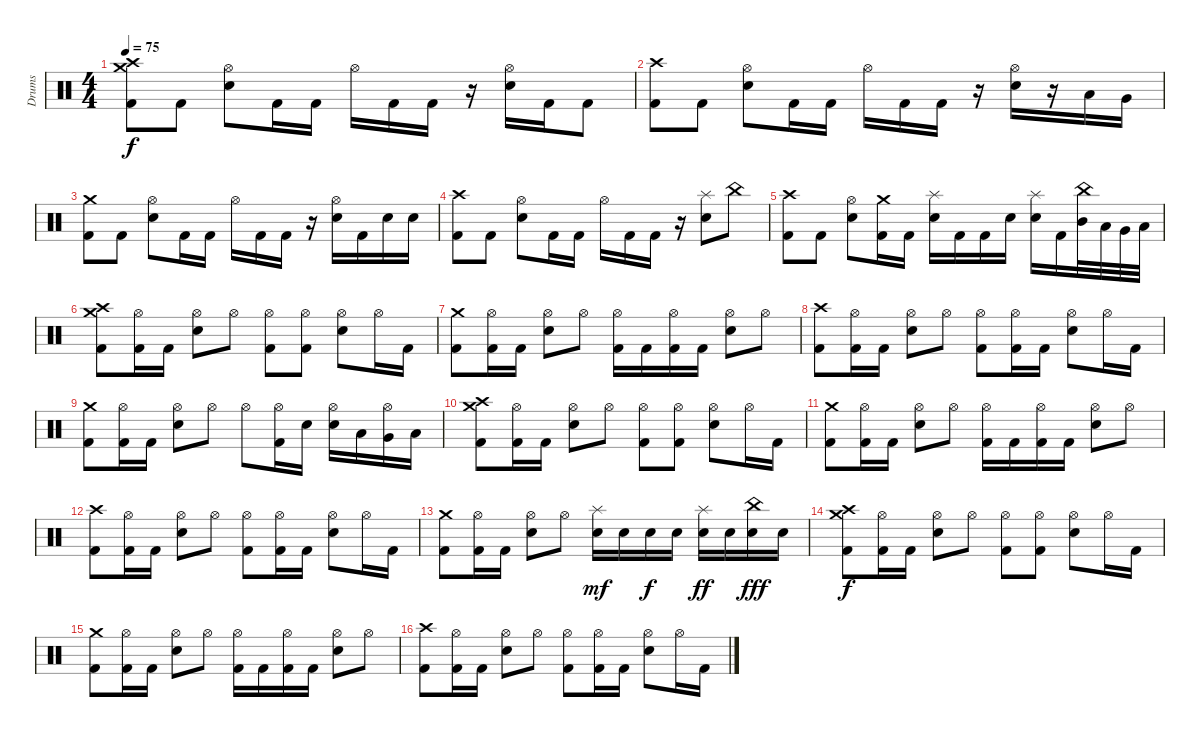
\track ("Drums" "Drums") {instrument percussion}
\staff {score}
\articulation defaults
\ts (4 4)
\tempo 75
\clef neutral
\ks c
("Kick (hit) 2" "Crash high (hit)" "Crash medium (hit)").8{dy f} "Kick (hit) 2".8 ("Electric Snare (hit)" "Hi-Hat (open)").8 "Kick (hit) 2".16 "Kick (hit) 2".16 "Hi-Hat (open)".16 "Kick (hit) 2".16 "Kick (hit) 2".16 r.16 ("Electric Snare (hit)" "Hi-Hat (open)").16 "Kick (hit) 2".16 "Kick (hit) 2".8 |
("Kick (hit) 2" "Crash high (hit)").8 "Kick (hit) 2".8 ("Electric Snare (hit)" "Hi-Hat (open)").8 "Kick (hit) 2".16 "Kick (hit) 2".16 "Hi-Hat (open)".16 "Kick (hit) 2".16 "Kick (hit) 2".16 r.16 ("Electric Snare (hit)" "Hi-Hat (open)").16 r.16 "Low Tom (hit)".16 "Very Low Tom (hit)".16 |
("Kick (hit) 2" "Crash medium (hit)").8 "Kick (hit) 2".8 ("Electric Snare (hit)" "Hi-Hat (open)").8 "Kick (hit) 2".16 "Kick (hit) 2".16 "Hi-Hat (open)".16 "Kick (hit) 2".16 "Kick (hit) 2".16 r.16 ("Electric Snare (hit)" "Hi-Hat (open)").16 "Kick (hit) 2".16 "Electric Snare (hit)".16 "Electric Snare (hit)".16 |
("Kick (hit) 2" "Crash high (hit)").8 "Kick (hit) 2".8 ("Electric Snare (hit)" "Hi-Hat (open)").8 "Kick (hit) 2".16 "Kick (hit) 2".16 "Hi-Hat (open)".16 "Kick (hit) 2".16 "Kick (hit) 2".16 r.16 ("Electric Snare (hit)" "Splash (hit)").8 "China (hit)".8 |
("Kick (hit) 2" "Crash high (hit)").8 "Kick (hit) 2".8 ("Electric Snare (hit)" "Hi-Hat (open)").8 ("Kick (hit) 2" "Crash medium (hit)").16 "Kick (hit) 2".16 ("Electric Snare (hit)" "Splash (hit)").16 "Kick (hit) 2".16 "Kick (hit) 2".16 "Electric Snare (hit)".16 ("Electric Snare (hit)" "Splash (hit)").16 "Kick (hit) 2".16 ("Mid Tom (hit)" "China (hit)").32 "Low Tom (hit)".32 "Very Low Tom (hit)".32 "Low Floor Tom (hit)".32 |
("Kick (hit) 2" "Crash high (hit)" "Crash medium (hit)").8 ("Kick (hit) 2" "Hi-Hat (open)").16 "Kick (hit) 2".16 ("Electric Snare (hit)" "Hi-Hat (open)").8 "Hi-Hat (open)".8 ("Kick (hit) 2" "Hi-Hat (open)").8 ("Kick (hit) 2" "Hi-Hat (open)").8 ("Electric Snare (hit)" "Hi-Hat (open)").8 "Hi-Hat (open)".16 "Kick (hit) 2".16 |
("Kick (hit) 2" "Crash medium (hit)").8 ("Kick (hit) 2" "Hi-Hat (open)").16 "Kick (hit) 2".16 ("Electric Snare (hit)" "Hi-Hat (open)").8 "Hi-Hat (open)".8 ("Kick (hit) 2" "Hi-Hat (open)").16 "Kick (hit) 2".16 ("Kick (hit) 2" "Hi-Hat (open)").16 "Kick (hit) 2".16 ("Electric Snare (hit)" "Hi-Hat (open)").8 "Hi-Hat (open)".8 |
("Kick (hit) 2" "Crash high (hit)").8 ("Kick (hit) 2" "Hi-Hat (open)").16 "Kick (hit) 2".16 ("Electric Snare (hit)" "Hi-Hat (open)").8 "Hi-Hat (open)".8 ("Kick (hit) 2" "Hi-Hat (open)").8 ("Kick (hit) 2" "Hi-Hat (open)").16 "Kick (hit) 2".16 ("Electric Snare (hit)" "Hi-Hat (open)").8 "Hi-Hat (open)".16 "Kick (hit) 2".16 |
("Kick (hit) 2" "Crash medium (hit)").8 ("Kick (hit) 2" "Hi-Hat (open)").16 "Kick (hit) 2".16 ("Electric Snare (hit)" "Hi-Hat (open)").8 "Hi-Hat (open)".8 "Hi-Hat (open)".8 ("Kick (hit) 2" "Hi-Hat (open)").16 "Electric Snare (hit)".16 ("Electric Snare (hit)" "Hi-Hat (open)").16 "Low Tom (hit)".16 ("Very Low Tom (hit)" "Hi-Hat (open)").16 "Low Floor Tom (hit)".16 |
("Kick (hit) 2" "Crash high (hit)" "Crash medium (hit)").8 ("Kick (hit) 2" "Hi-Hat (open)").16 "Kick (hit) 2".16 ("Electric Snare (hit)" "Hi-Hat (open)").8 "Hi-Hat (open)".8 ("Kick (hit) 2" "Hi-Hat (open)").8 ("Kick (hit) 2" "Hi-Hat (open)").8 ("Electric Snare (hit)" "Hi-Hat (open)").8 "Hi-Hat (open)".16 "Kick (hit) 2".16 |
("Kick (hit) 2" "Crash medium (hit)").8 ("Kick (hit) 2" "Hi-Hat (open)").16 "Kick (hit) 2".16 ("Electric Snare (hit)" "Hi-Hat (open)").8 "Hi-Hat (open)".8 ("Kick (hit) 2" "Hi-Hat (open)").16 "Kick (hit) 2".16 ("Kick (hit) 2" "Hi-Hat (open)").16 "Kick (hit) 2".16 ("Electric Snare (hit)" "Hi-Hat (open)").8 "Hi-Hat (open)".8 |
("Kick (hit) 2" "Crash high (hit)").8 ("Kick (hit) 2" "Hi-Hat (open)").16 "Kick (hit) 2".16 ("Electric Snare (hit)" "Hi-Hat (open)").8 "Hi-Hat (open)".8 ("Kick (hit) 2" "Hi-Hat (open)").8 ("Kick (hit) 2" "Hi-Hat (open)").16 "Kick (hit) 2".16 ("Electric Snare (hit)" "Hi-Hat (open)").8 "Hi-Hat (open)".16 "Kick (hit) 2".16 |
("Kick (hit) 2" "Crash medium (hit)").8 ("Kick (hit) 2" "Hi-Hat (open)").16 "Kick (hit) 2".16 ("Electric Snare (hit)" "Hi-Hat (open)").8 "Hi-Hat (open)".8 ("Electric Snare (hit)" "Splash (hit)").16{dy mf} "Electric Snare (hit)".16 "Electric Snare (hit)".16{dy f} "Electric Snare (hit)".16 ("Electric Snare (hit)" "Splash (hit)").16{dy ff} "Electric Snare (hit)".16 ("Electric Snare (hit)" "China (hit)").16{dy fff} "Electric Snare (hit)".16 |
("Kick (hit) 2" "Crash high (hit)" "Crash medium (hit)").8{dy f} ("Kick (hit) 2" "Hi-Hat (open)").16 "Kick (hit) 2".16 ("Electric Snare (hit)" "Hi-Hat (open)").8 "Hi-Hat (open)".8 ("Kick (hit) 2" "Hi-Hat (open)").8 ("Kick (hit) 2" "Hi-Hat (open)").8 ("Electric Snare (hit)" "Hi-Hat (open)").8 "Hi-Hat (open)".16 "Kick (hit) 2".16 |
("Kick (hit) 2" "Crash medium (hit)").8 ("Kick (hit) 2" "Hi-Hat (open)").16 "Kick (hit) 2".16 ("Electric Snare (hit)" "Hi-Hat (open)").8 "Hi-Hat (open)".8 ("Kick (hit) 2" "Hi-Hat (open)").16 "Kick (hit) 2".16 ("Kick (hit) 2" "Hi-Hat (open)").16 "Kick (hit) 2".16 ("Electric Snare (hit)" "Hi-Hat (open)").8 "Hi-Hat (open)".8 |
("Kick (hit) 2" "Crash high (hit)").8 ("Kick (hit) 2" "Hi-Hat (open)").16 "Kick (hit) 2".16 ("Electric Snare (hit)" "Hi-Hat (open)").8 "Hi-Hat (open)".8 ("Kick (hit) 2" "Hi-Hat (open)").8 ("Kick (hit) 2" "Hi-Hat (open)").16 "Kick (hit) 2".16 ("Electric Snare (hit)" "Hi-Hat (open)").8 "Hi-Hat (open)".16 "Kick (hit) 2".16
